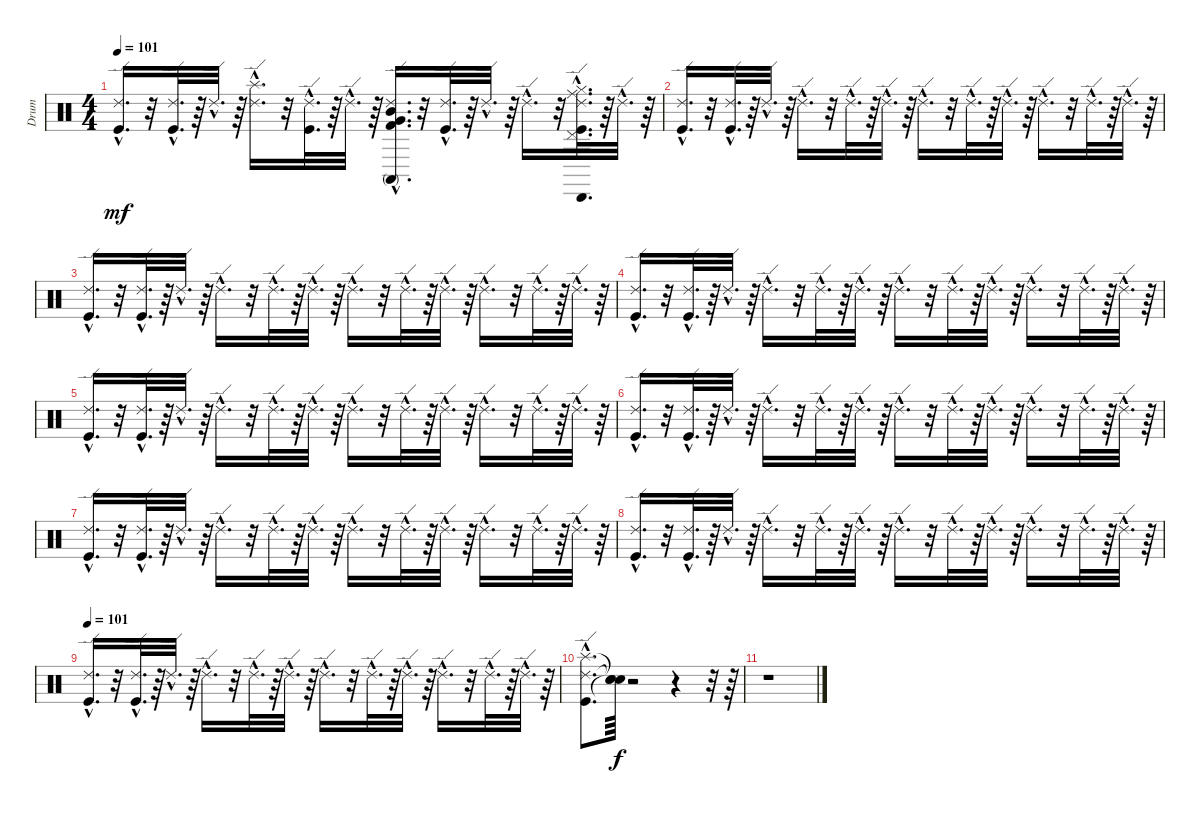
\track ("Drum" "Drum") {instrument percussion}
\staff {score}
\articulation defaults
\ts (4 4)
\tempo 101
\clef neutral
\ks c
("Ride (edge) 2"{hac} "Kick (hit)"{hac}).16{d dy mf} r.32 ("Ride (edge) 2"{hac} "Kick (hit)"{hac}).32{d} r.64 "Ride (edge) 2"{hac}.32{d} r.64 ("Ride (edge) 2"{hac} "Splash (hit)"{hac}).16{d} r.32 ("Kick (hit)"{hac} "Ride (edge) 2"{hac}).32{d} r.64 "Ride (edge) 2"{hac}.32{d} r.64 ("Ride (edge) 2"{hac} "Kick (hit) 2"{hac} "Very Low Tom (hit)"{hac} "Mid Tom (hit)"{hac} "Conga high (mute)"{hac}).16{d} r.32 ("Ride (edge) 2"{hac} "Kick (hit)"{hac}).32{d} r.64 "Ride (edge) 2"{hac}.32{d} r.64 "Ride (edge) 2"{hac}.16{d} r.32 ("Cabasa (hit)"{hac} "Hi-Hat (closed)"{hac} "Pedal Hi-Hat (hit)"{hac} "Ride (middle)"{hac} "Ride (edge) 2"{hac} "Kick (hit)"{hac}).32{d} r.64 "Ride (edge) 2"{hac}.32{d} r.64 |
("Ride (edge) 2"{hac} "Kick (hit)"{hac}).16{d} r.32 ("Ride (edge) 2"{hac} "Kick (hit)"{hac}).32{d} r.64 "Ride (edge) 2"{hac}.32{d} r.64 "Ride (edge) 2"{hac}.16{d} r.32 "Ride (edge) 2"{hac}.32{d} r.64 "Ride (edge) 2"{hac}.32{d} r.64 "Ride (edge) 2"{hac}.16{d} r.32 "Ride (edge) 2"{hac}.32{d} r.64 "Ride (edge) 2"{hac}.32{d} r.64 "Ride (edge) 2"{hac}.16{d} r.32 "Ride (edge) 2"{hac}.32{d} r.64 "Ride (edge) 2"{hac}.32{d} r.64 |
("Kick (hit)"{hac} "Ride (edge) 2"{hac}).16{d} r.32 ("Kick (hit)"{hac} "Ride (edge) 2"{hac}).32{d} r.64 "Ride (edge) 2"{hac}.32{d} r.64 "Ride (edge) 2"{hac}.16{d} r.32 "Ride (edge) 2"{hac}.32{d} r.64 "Ride (edge) 2"{hac}.32{d} r.64 "Ride (edge) 2"{hac}.16{d} r.32 "Ride (edge) 2"{hac}.32{d} r.64 "Ride (edge) 2"{hac}.32{d} r.64 "Ride (edge) 2"{hac}.16{d} r.32 "Ride (edge) 2"{hac}.32{d} r.64 "Ride (edge) 2"{hac}.32{d} r.64 |
("Kick (hit)"{hac} "Ride (edge) 2"{hac}).16{d} r.32 ("Kick (hit)"{hac} "Ride (edge) 2"{hac}).32{d} r.64 "Ride (edge) 2"{hac}.32{d} r.64 "Ride (edge) 2"{hac}.16{d} r.32 "Ride (edge) 2"{hac}.32{d} r.64 "Ride (edge) 2"{hac}.32{d} r.64 "Ride (edge) 2"{hac}.16{d} r.32 "Ride (edge) 2"{hac}.32{d} r.64 "Ride (edge) 2"{hac}.32{d} r.64 "Ride (edge) 2"{hac}.16{d} r.32 "Ride (edge) 2"{hac}.32{d} r.64 "Ride (edge) 2"{hac}.32{d} r.64 |
("Kick (hit)"{hac} "Ride (edge) 2"{hac}).16{d} r.32 ("Kick (hit)"{hac} "Ride (edge) 2"{hac}).32{d} r.64 "Ride (edge) 2"{hac}.32{d} r.64 "Ride (edge) 2"{hac}.16{d} r.32 "Ride (edge) 2"{hac}.32{d} r.64 "Ride (edge) 2"{hac}.32{d} r.64 "Ride (edge) 2"{hac}.16{d} r.32 "Ride (edge) 2"{hac}.32{d} r.64 "Ride (edge) 2"{hac}.32{d} r.64 "Ride (edge) 2"{hac}.16{d} r.32 "Ride (edge) 2"{hac}.32{d} r.64 "Ride (edge) 2"{hac}.32{d} r.64 |
("Kick (hit)"{hac} "Ride (edge) 2"{hac}).16{d} r.32 ("Kick (hit)"{hac} "Ride (edge) 2"{hac}).32{d} r.64 "Ride (edge) 2"{hac}.32{d} r.64 "Ride (edge) 2"{hac}.16{d} r.32 "Ride (edge) 2"{hac}.32{d} r.64 "Ride (edge) 2"{hac}.32{d} r.64 "Ride (edge) 2"{hac}.16{d} r.32 "Ride (edge) 2"{hac}.32{d} r.64 "Ride (edge) 2"{hac}.32{d} r.64 "Ride (edge) 2"{hac}.16{d} r.32 "Ride (edge) 2"{hac}.32{d} r.64 "Ride (edge) 2"{hac}.32{d} r.64 |
("Kick (hit)"{hac} "Ride (edge) 2"{hac}).16{d} r.32 ("Kick (hit)"{hac} "Ride (edge) 2"{hac}).32{d} r.64 "Ride (edge) 2"{hac}.32{d} r.64 "Ride (edge) 2"{hac}.16{d} r.32 "Ride (edge) 2"{hac}.32{d} r.64 "Ride (edge) 2"{hac}.32{d} r.64 "Ride (edge) 2"{hac}.16{d} r.32 "Ride (edge) 2"{hac}.32{d} r.64 "Ride (edge) 2"{hac}.32{d} r.64 "Ride (edge) 2"{hac}.16{d} r.32 "Ride (edge) 2"{hac}.32{d} r.64 "Ride (edge) 2"{hac}.32{d} r.64 |
("Kick (hit)"{hac} "Ride (edge) 2"{hac}).16{d} r.32 ("Kick (hit)"{hac} "Ride (edge) 2"{hac}).32{d} r.64 "Ride (edge) 2"{hac}.32{d} r.64 "Ride (edge) 2"{hac}.16{d} r.32 "Ride (edge) 2"{hac}.32{d} r.64 "Ride (edge) 2"{hac}.32{d} r.64 "Ride (edge) 2"{hac}.16{d} r.32 "Ride (edge) 2"{hac}.32{d} r.64 "Ride (edge) 2"{hac}.32{d} r.64 "Ride (edge) 2"{hac}.16{d} r.32 "Ride (edge) 2"{hac}.32{d} r.64 "Ride (edge) 2"{hac}.32{d} r.64 |
\tempo 101
("Kick (hit)"{hac} "Ride (edge) 2"{hac}).16{d} r.32 ("Kick (hit)"{hac} "Ride (edge) 2"{hac}).32{d} r.64 "Ride (edge) 2"{hac}.32{d} r.64 "Ride (edge) 2"{hac}.16{d} r.32 "Ride (edge) 2"{hac}.32{d} r.64 "Ride (edge) 2"{hac}.32{d} r.64 "Ride (edge) 2"{hac}.16{d} r.32 "Ride (edge) 2"{hac}.32{d} r.64 "Ride (edge) 2"{hac}.32{d} r.64 "Ride (edge) 2"{hac}.16{d} r.32 "Ride (edge) 2"{hac}.32{d} r.64 "Ride (edge) 2"{hac}.32{d} r.64 |
("Kick (hit)"{hac} "Ride (edge) 2"{hac} "Splash (hit)"{hac}).8{d} ("Snare (hit)"{t} "Snare (hit)"{t} "Snare (hit)"{t}).64{dy f} r.2 r.4 r.32 r.64 |
r.1
